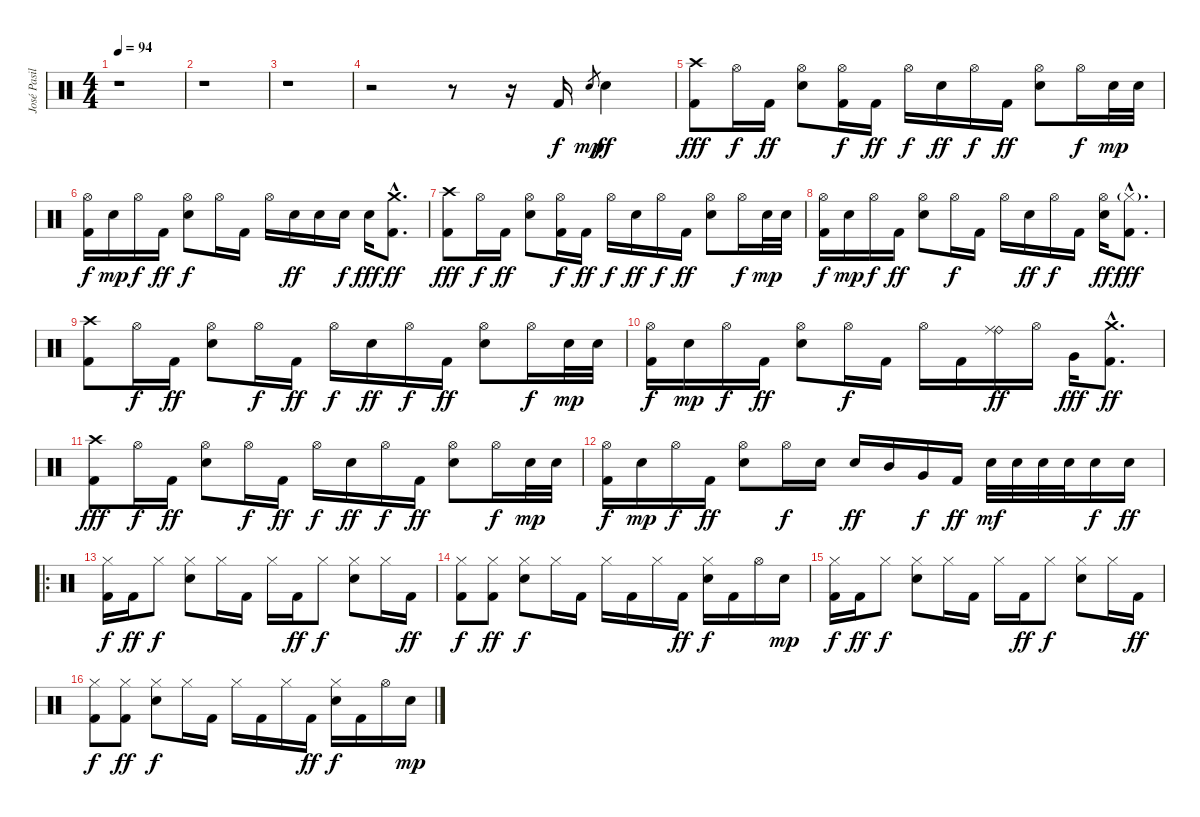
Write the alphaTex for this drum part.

\track ("José Pasillas II : Drums" "José Pasil") {instrument percussion}
\staff {score}
\articulation defaults
\ts (4 4)
\tempo 94
\clef neutral
\ks c
r.1{dy f} |
r.1 |
r.1 |
r.2 r.8 r.16 "Kick (hit) 2".16 "Electric Snare (hit)".8{gr dy mp} "Electric Snare (hit)".4{dy ff} |
("Crash high (hit)" "Kick (hit) 2").8{dy fff} "Hi-Hat (open)".16{dy f} "Kick (hit) 2".16{dy ff} ("Hi-Hat (open)" "Electric Snare (hit)").8 ("Hi-Hat (open)" "Kick (hit) 2").16{dy f} "Kick (hit) 2".16{dy ff} "Hi-Hat (open)".16{dy f} "Electric Snare (hit)".16{dy ff} "Hi-Hat (open)".16{dy f} "Kick (hit) 2".16{dy ff} ("Hi-Hat (open)" "Electric Snare (hit)").8 "Hi-Hat (open)".16{dy f} "Electric Snare (hit)".32{dy mp} "Electric Snare (hit)".32 |
("Hi-Hat (open)" "Kick (hit) 2").16{dy f} "Electric Snare (hit)".16{dy mp} "Hi-Hat (open)".16{dy f} "Kick (hit) 2".16{dy ff} ("Hi-Hat (open)" "Electric Snare (hit)").8{dy f} "Hi-Hat (open)".16 "Kick (hit) 2".16 "Hi-Hat (open)".16 "Electric Snare (hit)".16{dy ff} "Electric Snare (hit)".16 "Electric Snare (hit)".16{dy f} "Electric Snare (hit)".16{dy fff} ("Crash medium (hit)"{hac} "Kick (hit) 2"{hac}).8{d dy ff} |
("Crash high (hit)" "Kick (hit) 2").8{dy fff} "Hi-Hat (open)".16{dy f} "Kick (hit) 2".16{dy ff} ("Hi-Hat (open)" "Electric Snare (hit)").8 ("Hi-Hat (open)" "Kick (hit) 2").16{dy f} "Kick (hit) 2".16{dy ff} "Hi-Hat (open)".16{dy f} "Electric Snare (hit)".16{dy ff} "Hi-Hat (open)".16{dy f} "Kick (hit) 2".16{dy ff} ("Hi-Hat (open)" "Electric Snare (hit)").8 "Hi-Hat (open)".16{dy f} "Electric Snare (hit)".32{dy mp} "Electric Snare (hit)".32 |
("Hi-Hat (open)" "Kick (hit) 2").16{dy f} "Electric Snare (hit)".16{dy mp} "Hi-Hat (open)".16{dy f} "Kick (hit) 2".16{dy ff} ("Hi-Hat (open)" "Electric Snare (hit)").8 "Hi-Hat (open)".16{dy f} "Kick (hit) 2".16 "Hi-Hat (open)".16 "Electric Snare (hit)".16{dy ff} "Hi-Hat (open)".16{dy f} "Kick (hit) 2".16 ("Hi-Hat (open)" "Electric Snare (hit)").16{dy ff} ("Hi-Hat (closed)"{g hac} "Kick (hit) 2"{hac}).8{d dy fff} |
("Crash high (hit)" "Kick (hit) 2").8 "Hi-Hat (open)".16{dy f} "Kick (hit) 2".16{dy ff} ("Hi-Hat (open)" "Electric Snare (hit)").8 "Hi-Hat (open)".16{dy f} "Kick (hit) 2".16{dy ff} "Hi-Hat (open)".16{dy f} "Electric Snare (hit)".16{dy ff} "Hi-Hat (open)".16{dy f} "Kick (hit) 2".16{dy ff} ("Hi-Hat (open)" "Electric Snare (hit)").8 "Hi-Hat (open)".16{dy f} "Electric Snare (hit)".32{dy mp} "Electric Snare (hit)".32 |
("Hi-Hat (open)" "Kick (hit) 2").16{dy f} "Electric Snare (hit)".16{dy mp} "Hi-Hat (open)".16{dy f} "Kick (hit) 2".16{dy ff} ("Hi-Hat (open)" "Electric Snare (hit)").8 "Hi-Hat (open)".16{dy f} "Kick (hit) 2".16 "Hi-Hat (open)".16 "Kick (hit) 2".16 ("Ride (bell)" "Ride (middle)").16{dy ff} "Hi-Hat (open)".16 "Very Low Tom (hit)".16{dy fff} ("Crash medium (hit)"{hac} "Kick (hit) 2"{hac}).8{d dy ff} |
("Crash high (hit)" "Kick (hit) 2").8{dy fff} "Hi-Hat (open)".16{dy f} "Kick (hit) 2".16{dy ff} ("Hi-Hat (open)" "Electric Snare (hit)").8 "Hi-Hat (open)".16{dy f} "Kick (hit) 2".16{dy ff} "Hi-Hat (open)".16{dy f} "Electric Snare (hit)".16{dy ff} "Hi-Hat (open)".16{dy f} "Kick (hit) 2".16{dy ff} ("Hi-Hat (open)" "Electric Snare (hit)").8 "Hi-Hat (open)".16{dy f} "Electric Snare (hit)".32{dy mp} "Electric Snare (hit)".32 |
("Hi-Hat (open)" "Kick (hit) 2").16{dy f} "Electric Snare (hit)".16{dy mp} "Hi-Hat (open)".16{dy f} "Kick (hit) 2".16{dy ff} ("Hi-Hat (open)" "Electric Snare (hit)").8 "Hi-Hat (open)".16{dy f} "Electric Snare (hit)".16 "Electric Snare (hit)".16{dy ff} "Mid Tom (hit)".16 "Very Low Tom (hit)".16{dy f} "Kick (hit) 2".16{dy ff} "Electric Snare (hit)".32{dy mf} "Electric Snare (hit)".32 "Electric Snare (hit)".32 "Electric Snare (hit)".32 "Electric Snare (hit)".16{dy f} "Electric Snare (hit)".16{dy ff} |
\ro
("Hi-Hat (closed)" "Kick (hit) 2").16{dy f} "Kick (hit) 2".16{dy ff} "Hi-Hat (closed)".8{dy f} ("Hi-Hat (closed)" "Electric Snare (hit)").8 "Hi-Hat (closed)".16 "Kick (hit) 2".16 "Hi-Hat (closed)".16 "Kick (hit) 2".16{dy ff} "Hi-Hat (closed)".8{dy f} ("Hi-Hat (closed)" "Electric Snare (hit)").8 "Hi-Hat (closed)".16 "Kick (hit) 2".16{dy ff} |
("Hi-Hat (closed)" "Kick (hit) 2").8{dy f} ("Hi-Hat (closed)" "Kick (hit) 2").8{dy ff} ("Hi-Hat (closed)" "Electric Snare (hit)").8{dy f} "Hi-Hat (closed)".16 "Kick (hit) 2".16 "Hi-Hat (closed)".16 "Kick (hit) 2".16 "Hi-Hat (closed)".16 "Kick (hit) 2".16{dy ff} ("Hi-Hat (closed)" "Electric Snare (hit)").16{dy f} "Kick (hit) 2".16 "Hi-Hat (open)".16 "Electric Snare (hit)".16{dy mp} |
("Hi-Hat (closed)" "Kick (hit) 2").16{dy f} "Kick (hit) 2".16{dy ff} "Hi-Hat (closed)".8{dy f} ("Hi-Hat (closed)" "Electric Snare (hit)").8 "Hi-Hat (closed)".16 "Kick (hit) 2".16 "Hi-Hat (closed)".16 "Kick (hit) 2".16{dy ff} "Hi-Hat (closed)".8{dy f} ("Hi-Hat (closed)" "Electric Snare (hit)").8 "Hi-Hat (closed)".16 "Kick (hit) 2".16{dy ff} |
("Hi-Hat (closed)" "Kick (hit) 2").8{dy f} ("Hi-Hat (closed)" "Kick (hit) 2").8{dy ff} ("Hi-Hat (closed)" "Electric Snare (hit)").8{dy f} "Hi-Hat (closed)".16 "Kick (hit) 2".16 "Hi-Hat (closed)".16 "Kick (hit) 2".16 "Hi-Hat (closed)".16 "Kick (hit) 2".16{dy ff} ("Hi-Hat (closed)" "Electric Snare (hit)").16{dy f} "Kick (hit) 2".16 "Hi-Hat (open)".16 "Electric Snare (hit)".16{dy mp}
